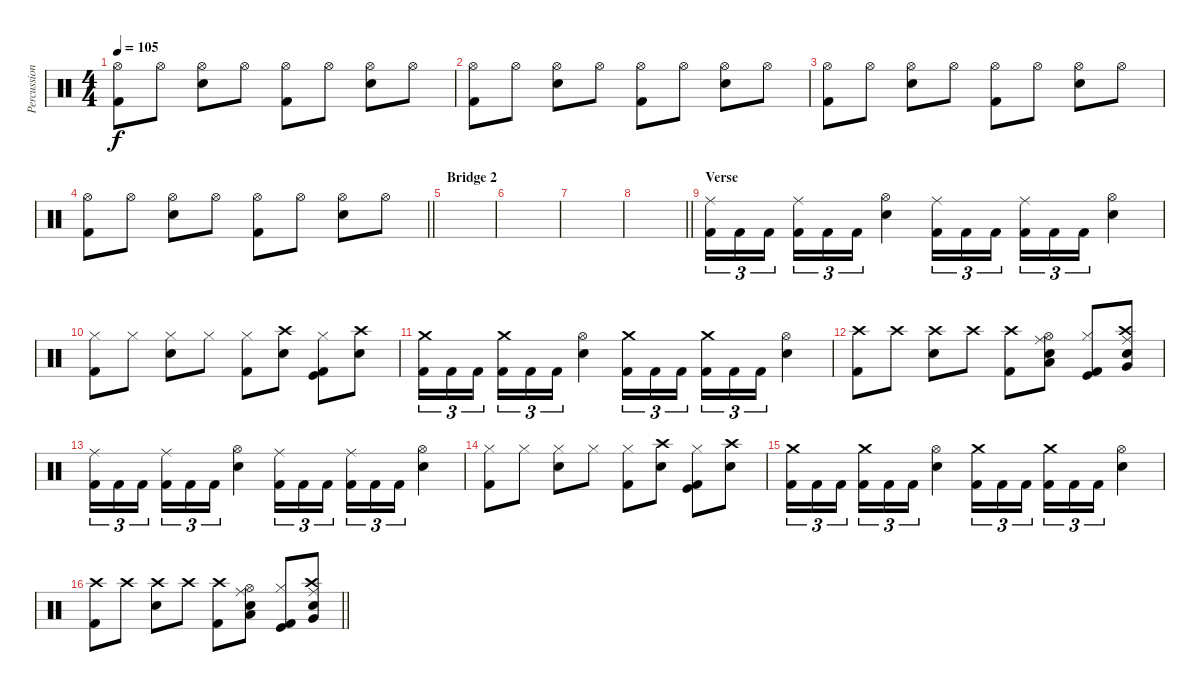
\track ("Percussion" "Percussion") {instrument percussion}
\staff {score}
\articulation defaults
\ts (4 4)
\tempo 105
\clef neutral
\ks c
("Hi-Hat (open)" "Kick (hit) 2").8{dy f} "Hi-Hat (open)".8 ("Hi-Hat (open)" "Snare (hit) 2").8 "Hi-Hat (open)".8 ("Hi-Hat (open)" "Kick (hit) 2").8 "Hi-Hat (open)".8 ("Hi-Hat (open)" "Snare (hit) 2").8 "Hi-Hat (open)".8 |
("Hi-Hat (open)" "Kick (hit) 2").8 "Hi-Hat (open)".8 ("Hi-Hat (open)" "Snare (hit) 2").8 "Hi-Hat (open)".8 ("Hi-Hat (open)" "Kick (hit) 2").8 "Hi-Hat (open)".8 ("Hi-Hat (open)" "Snare (hit) 2").8 "Hi-Hat (open)".8 |
("Hi-Hat (open)" "Kick (hit) 2").8 "Hi-Hat (open)".8 ("Hi-Hat (open)" "Snare (hit) 2").8 "Hi-Hat (open)".8 ("Hi-Hat (open)" "Kick (hit) 2").8 "Hi-Hat (open)".8 ("Hi-Hat (open)" "Snare (hit) 2").8 "Hi-Hat (open)".8 |
\barLineRight lightlight
("Hi-Hat (open)" "Kick (hit) 2").8 "Hi-Hat (open)".8 ("Hi-Hat (open)" "Snare (hit) 2").8 "Hi-Hat (open)".8 ("Hi-Hat (open)" "Kick (hit) 2").8 "Hi-Hat (open)".8 ("Hi-Hat (open)" "Snare (hit) 2").8 "Hi-Hat (open)".8 |
\section ("" "Bridge 2")
|
|
|
\barLineRight lightlight
|
\section ("" "Verse")
("Kick (hit) 2" "Ride (middle)").16{tu (3 2)} "Kick (hit) 2".16{tu (3 2)} "Kick (hit) 2".16{tu (3 2) beam splitsecondary} ("Kick (hit) 2" "Ride (middle)").16{tu (3 2)} "Kick (hit) 2".16{tu (3 2)} "Kick (hit) 2".16{tu (3 2)} ("Snare (hit) 2" "Hi-Hat (open)").4 ("Kick (hit) 2" "Ride (middle)").16{tu (3 2)} "Kick (hit) 2".16{tu (3 2)} "Kick (hit) 2".16{tu (3 2) beam splitsecondary} ("Kick (hit) 2" "Ride (middle)").16{tu (3 2)} "Kick (hit) 2".16{tu (3 2)} "Kick (hit) 2".16{tu (3 2)} ("Snare (hit) 2" "Hi-Hat (open)").4 |
("Hi-Hat (closed)" "Kick (hit) 2").8 "Hi-Hat (closed)".8 ("Hi-Hat (closed)" "Snare (hit) 2").8 "Hi-Hat (closed)".8 ("Hi-Hat (closed)" "Kick (hit) 2").8 ("Crash high (hit)" "Snare (hit) 2").8 ("Hi-Hat (closed)" "Kick (hit)" "Kick (hit) 2").8 ("Crash high (hit)" "Snare (hit) 2").8 |
("Kick (hit) 2" "Crash medium (hit)").16{tu (3 2)} "Kick (hit) 2".16{tu (3 2)} "Kick (hit) 2".16{tu (3 2) beam splitsecondary} ("Kick (hit) 2" "Crash medium (hit)").16{tu (3 2)} "Kick (hit) 2".16{tu (3 2)} "Kick (hit) 2".16{tu (3 2)} ("Snare (hit) 2" "Hi-Hat (open)").4 ("Kick (hit) 2" "Crash medium (hit)").16{tu (3 2)} "Kick (hit) 2".16{tu (3 2)} "Kick (hit) 2".16{tu (3 2) beam splitsecondary} ("Kick (hit) 2" "Crash medium (hit)").16{tu (3 2)} "Kick (hit) 2".16{tu (3 2)} "Kick (hit) 2".16{tu (3 2)} ("Snare (hit) 2" "Hi-Hat (open)").4 |
("Crash high (hit)" "Kick (hit) 2").8 "Crash high (hit)".8 ("Crash high (hit)" "Snare (hit) 2").8 "Crash high (hit)".8 ("Crash high (hit)" "Kick (hit) 2").8 ("Hi-Hat (open)" "Ride (middle)" "Low Floor Tom (hit)" "Snare (hit) 2").8 ("Hi-Hat (closed)" "Kick (hit)" "Kick (hit) 2").8 ("Crash high (hit)" "Ride (middle)" "Very Low Tom (hit)" "Snare (hit) 2").8 |
("Kick (hit) 2" "Ride (middle)").16{tu (3 2)} "Kick (hit) 2".16{tu (3 2)} "Kick (hit) 2".16{tu (3 2) beam splitsecondary} ("Kick (hit) 2" "Ride (middle)").16{tu (3 2)} "Kick (hit) 2".16{tu (3 2)} "Kick (hit) 2".16{tu (3 2)} ("Snare (hit) 2" "Hi-Hat (open)").4 ("Kick (hit) 2" "Ride (middle)").16{tu (3 2)} "Kick (hit) 2".16{tu (3 2)} "Kick (hit) 2".16{tu (3 2) beam splitsecondary} ("Kick (hit) 2" "Ride (middle)").16{tu (3 2)} "Kick (hit) 2".16{tu (3 2)} "Kick (hit) 2".16{tu (3 2)} ("Snare (hit) 2" "Hi-Hat (open)").4 |
("Hi-Hat (closed)" "Kick (hit) 2").8 "Hi-Hat (closed)".8 ("Hi-Hat (closed)" "Snare (hit) 2").8 "Hi-Hat (closed)".8 ("Hi-Hat (closed)" "Kick (hit) 2").8 ("Crash high (hit)" "Snare (hit) 2").8 ("Hi-Hat (closed)" "Kick (hit)" "Kick (hit) 2").8 ("Crash high (hit)" "Snare (hit) 2").8 |
("Kick (hit) 2" "Crash medium (hit)").16{tu (3 2)} "Kick (hit) 2".16{tu (3 2)} "Kick (hit) 2".16{tu (3 2) beam splitsecondary} ("Kick (hit) 2" "Crash medium (hit)").16{tu (3 2)} "Kick (hit) 2".16{tu (3 2)} "Kick (hit) 2".16{tu (3 2)} ("Snare (hit) 2" "Hi-Hat (open)").4 ("Kick (hit) 2" "Crash medium (hit)").16{tu (3 2)} "Kick (hit) 2".16{tu (3 2)} "Kick (hit) 2".16{tu (3 2) beam splitsecondary} ("Kick (hit) 2" "Crash medium (hit)").16{tu (3 2)} "Kick (hit) 2".16{tu (3 2)} "Kick (hit) 2".16{tu (3 2)} ("Snare (hit) 2" "Hi-Hat (open)").4 |
\barLineRight lightlight
("Crash high (hit)" "Kick (hit) 2").8 "Crash high (hit)".8 ("Crash high (hit)" "Snare (hit) 2").8 "Crash high (hit)".8 ("Crash high (hit)" "Kick (hit) 2").8 ("Hi-Hat (open)" "Ride (middle)" "Low Floor Tom (hit)" "Snare (hit) 2").8 ("Hi-Hat (closed)" "Kick (hit)" "Kick (hit) 2").8 ("Crash high (hit)" "Ride (middle)" "Very Low Tom (hit)" "Snare (hit) 2").8
